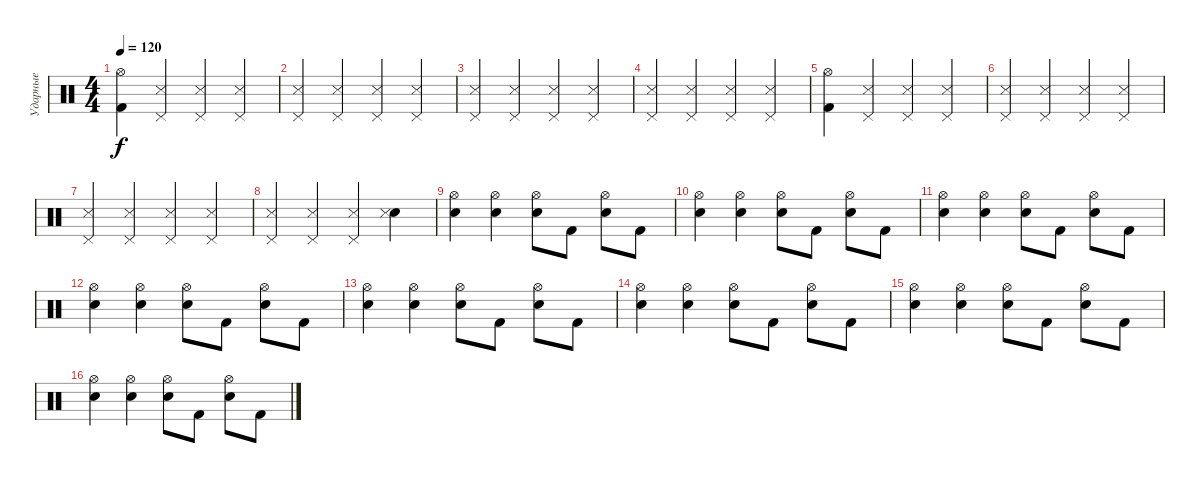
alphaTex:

\track ("Ударные" "Ударные") {instrument percussion}
\staff {score}
\articulation defaults
\ts (4 4)
\tempo 120
\clef neutral
\ks c
("Hi-Hat (open)" "Kick (hit) 2").4{dy f} ("Pedal Hi-Hat (hit)" "Metronome (hit)").4 ("Pedal Hi-Hat (hit)" "Metronome (hit)").4 ("Pedal Hi-Hat (hit)" "Metronome (hit)").4 |
("Pedal Hi-Hat (hit)" "Metronome (hit)").4 ("Pedal Hi-Hat (hit)" "Metronome (hit)").4 ("Pedal Hi-Hat (hit)" "Metronome (hit)").4 ("Pedal Hi-Hat (hit)" "Metronome (hit)").4 |
("Pedal Hi-Hat (hit)" "Metronome (hit)").4 ("Pedal Hi-Hat (hit)" "Metronome (hit)").4 ("Pedal Hi-Hat (hit)" "Metronome (hit)").4 ("Pedal Hi-Hat (hit)" "Metronome (hit)").4 |
("Pedal Hi-Hat (hit)" "Metronome (hit)").4 ("Pedal Hi-Hat (hit)" "Metronome (hit)").4 ("Pedal Hi-Hat (hit)" "Metronome (hit)").4 ("Pedal Hi-Hat (hit)" "Metronome (hit)").4 |
("Hi-Hat (open)" "Kick (hit) 2").4 ("Pedal Hi-Hat (hit)" "Metronome (hit)").4 ("Pedal Hi-Hat (hit)" "Metronome (hit)").4 ("Pedal Hi-Hat (hit)" "Metronome (hit)").4 |
("Pedal Hi-Hat (hit)" "Metronome (hit)").4 ("Pedal Hi-Hat (hit)" "Metronome (hit)").4 ("Pedal Hi-Hat (hit)" "Metronome (hit)").4 ("Pedal Hi-Hat (hit)" "Metronome (hit)").4 |
("Pedal Hi-Hat (hit)" "Metronome (hit)").4 ("Pedal Hi-Hat (hit)" "Metronome (hit)").4 ("Pedal Hi-Hat (hit)" "Metronome (hit)").4 ("Pedal Hi-Hat (hit)" "Metronome (hit)").4 |
("Pedal Hi-Hat (hit)" "Metronome (hit)").4 ("Pedal Hi-Hat (hit)" "Metronome (hit)").4 ("Pedal Hi-Hat (hit)" "Metronome (hit)").4 ("Electric Snare (hit)" "Metronome (hit)").4 |
("Hi-Hat (open)" "Electric Snare (hit)").4 ("Hi-Hat (open)" "Electric Snare (hit)").4 ("Hi-Hat (open)" "Electric Snare (hit)").8 "Kick (hit) 2".8 ("Hi-Hat (open)" "Electric Snare (hit)").8 "Kick (hit) 2".8 |
("Hi-Hat (open)" "Electric Snare (hit)").4 ("Hi-Hat (open)" "Electric Snare (hit)").4 ("Hi-Hat (open)" "Electric Snare (hit)").8 "Kick (hit) 2".8 ("Hi-Hat (open)" "Electric Snare (hit)").8 "Kick (hit) 2".8 |
("Hi-Hat (open)" "Electric Snare (hit)").4 ("Hi-Hat (open)" "Electric Snare (hit)").4 ("Hi-Hat (open)" "Electric Snare (hit)").8 "Kick (hit) 2".8 ("Hi-Hat (open)" "Electric Snare (hit)").8 "Kick (hit) 2".8 |
("Hi-Hat (open)" "Electric Snare (hit)").4 ("Hi-Hat (open)" "Electric Snare (hit)").4 ("Hi-Hat (open)" "Electric Snare (hit)").8 "Kick (hit) 2".8 ("Hi-Hat (open)" "Electric Snare (hit)").8 "Kick (hit) 2".8 |
("Hi-Hat (open)" "Electric Snare (hit)").4 ("Hi-Hat (open)" "Electric Snare (hit)").4 ("Hi-Hat (open)" "Electric Snare (hit)").8 "Kick (hit) 2".8 ("Hi-Hat (open)" "Electric Snare (hit)").8 "Kick (hit) 2".8 |
("Hi-Hat (open)" "Electric Snare (hit)").4 ("Hi-Hat (open)" "Electric Snare (hit)").4 ("Hi-Hat (open)" "Electric Snare (hit)").8 "Kick (hit) 2".8 ("Hi-Hat (open)" "Electric Snare (hit)").8 "Kick (hit) 2".8 |
("Hi-Hat (open)" "Electric Snare (hit)").4 ("Hi-Hat (open)" "Electric Snare (hit)").4 ("Hi-Hat (open)" "Electric Snare (hit)").8 "Kick (hit) 2".8 ("Hi-Hat (open)" "Electric Snare (hit)").8 "Kick (hit) 2".8 |
("Hi-Hat (open)" "Electric Snare (hit)").4 ("Hi-Hat (open)" "Electric Snare (hit)").4 ("Hi-Hat (open)" "Electric Snare (hit)").8 "Kick (hit) 2".8 ("Hi-Hat (open)" "Electric Snare (hit)").8 "Kick (hit) 2".8
